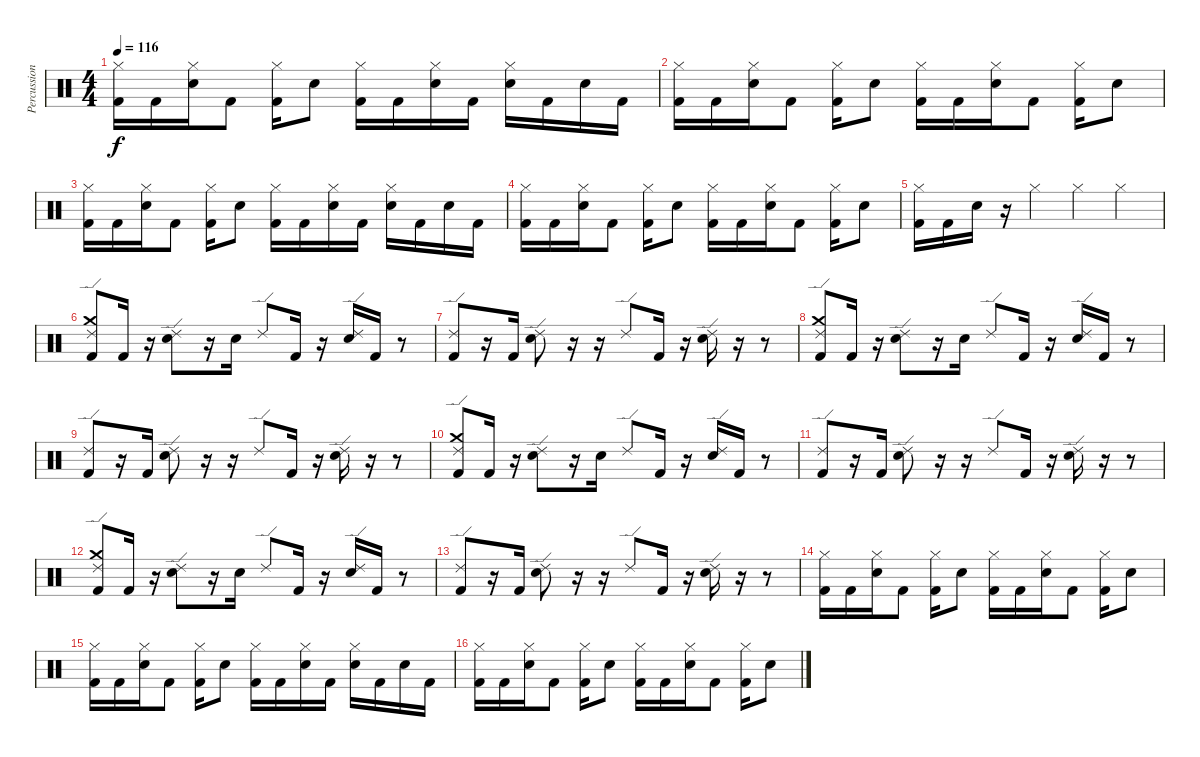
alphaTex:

\track ("Percussion" "Percussion") {instrument percussion}
\staff {score}
\articulation defaults
\ts (4 4)
\tempo 116
\clef neutral
\ks c
("Hi-Hat (closed)" "Kick (hit) 2").16{dy f} "Kick (hit) 2".16 ("Hi-Hat (closed)" "Electric Snare (hit)").16 "Kick (hit) 2".8 ("Hi-Hat (closed)" "Kick (hit) 2").16 "Electric Snare (hit)".8 ("Hi-Hat (closed)" "Kick (hit) 2").16 "Kick (hit) 2".16 ("Hi-Hat (closed)" "Electric Snare (hit)").16 "Kick (hit) 2".16 ("Hi-Hat (closed)" "Electric Snare (hit)").16 "Kick (hit) 2".16 "Electric Snare (hit)".16 "Kick (hit) 2".16 |
("Hi-Hat (closed)" "Kick (hit) 2").16 "Kick (hit) 2".16 ("Hi-Hat (closed)" "Electric Snare (hit)").16 "Kick (hit) 2".8 ("Hi-Hat (closed)" "Kick (hit) 2").16 "Electric Snare (hit)".8 ("Hi-Hat (closed)" "Kick (hit) 2").16 "Kick (hit) 2".16 ("Hi-Hat (closed)" "Electric Snare (hit)").16 "Kick (hit) 2".8 ("Hi-Hat (closed)" "Kick (hit) 2").16 "Electric Snare (hit)".8 |
("Hi-Hat (closed)" "Kick (hit) 2").16 "Kick (hit) 2".16 ("Hi-Hat (closed)" "Electric Snare (hit)").16 "Kick (hit) 2".8 ("Hi-Hat (closed)" "Kick (hit) 2").16 "Electric Snare (hit)".8 ("Hi-Hat (closed)" "Kick (hit) 2").16 "Kick (hit) 2".16 ("Hi-Hat (closed)" "Electric Snare (hit)").16 "Kick (hit) 2".16 ("Hi-Hat (closed)" "Electric Snare (hit)").16 "Kick (hit) 2".16 "Electric Snare (hit)".16 "Kick (hit) 2".16 |
("Hi-Hat (closed)" "Kick (hit) 2").16 "Kick (hit) 2".16 ("Hi-Hat (closed)" "Electric Snare (hit)").16 "Kick (hit) 2".8 ("Hi-Hat (closed)" "Kick (hit) 2").16 "Electric Snare (hit)".8 ("Hi-Hat (closed)" "Kick (hit) 2").16 "Kick (hit) 2".16 ("Hi-Hat (closed)" "Electric Snare (hit)").16 "Kick (hit) 2".8 ("Hi-Hat (closed)" "Kick (hit) 2").16 "Electric Snare (hit)".8 |
("Hi-Hat (closed)" "Kick (hit) 2").16 "Kick (hit) 2".16 "Electric Snare (hit)".16 r.16 "Hi-Hat (closed)".4 "Hi-Hat (closed)".4 "Hi-Hat (closed)".4 |
("Crash medium (hit)" "Ride (edge) 2" "Kick (hit) 2").8 "Kick (hit) 2".16 r.16 ("Ride (edge) 2" "Electric Snare (hit)").8 r.16 "Electric Snare (hit)".16 "Ride (edge) 2".8 "Kick (hit) 2".16 r.16 ("Ride (edge) 2" "Electric Snare (hit)").16 "Kick (hit) 2".16 r.8 |
("Ride (edge) 2" "Kick (hit) 2").8 r.16 "Kick (hit) 2".16 ("Ride (edge) 2" "Electric Snare (hit)").8 r.16 r.16 "Ride (edge) 2".8 "Kick (hit) 2".16 r.16 ("Ride (edge) 2" "Electric Snare (hit)").16 r.16 r.8 |
("Crash medium (hit)" "Ride (edge) 2" "Kick (hit) 2").8 "Kick (hit) 2".16 r.16 ("Ride (edge) 2" "Electric Snare (hit)").8 r.16 "Electric Snare (hit)".16 "Ride (edge) 2".8 "Kick (hit) 2".16 r.16 ("Ride (edge) 2" "Electric Snare (hit)").16 "Kick (hit) 2".16 r.8 |
("Ride (edge) 2" "Kick (hit) 2").8 r.16 "Kick (hit) 2".16 ("Ride (edge) 2" "Electric Snare (hit)").8 r.16 r.16 "Ride (edge) 2".8 "Kick (hit) 2".16 r.16 ("Ride (edge) 2" "Electric Snare (hit)").16 r.16 r.8 |
("Crash medium (hit)" "Ride (edge) 2" "Kick (hit) 2").8 "Kick (hit) 2".16 r.16 ("Ride (edge) 2" "Electric Snare (hit)").8 r.16 "Electric Snare (hit)".16 "Ride (edge) 2".8 "Kick (hit) 2".16 r.16 ("Ride (edge) 2" "Electric Snare (hit)").16 "Kick (hit) 2".16 r.8 |
("Ride (edge) 2" "Kick (hit) 2").8 r.16 "Kick (hit) 2".16 ("Ride (edge) 2" "Electric Snare (hit)").8 r.16 r.16 "Ride (edge) 2".8 "Kick (hit) 2".16 r.16 ("Ride (edge) 2" "Electric Snare (hit)").16 r.16 r.8 |
("Crash medium (hit)" "Ride (edge) 2" "Kick (hit) 2").8 "Kick (hit) 2".16 r.16 ("Ride (edge) 2" "Electric Snare (hit)").8 r.16 "Electric Snare (hit)".16 "Ride (edge) 2".8 "Kick (hit) 2".16 r.16 ("Ride (edge) 2" "Electric Snare (hit)").16 "Kick (hit) 2".16 r.8 |
("Ride (edge) 2" "Kick (hit) 2").8 r.16 "Kick (hit) 2".16 ("Ride (edge) 2" "Electric Snare (hit)").8 r.16 r.16 "Ride (edge) 2".8 "Kick (hit) 2".16 r.16 ("Ride (edge) 2" "Electric Snare (hit)").16 r.16 r.8 |
("Hi-Hat (closed)" "Kick (hit) 2").16 "Kick (hit) 2".16 ("Hi-Hat (closed)" "Electric Snare (hit)").16 "Kick (hit) 2".8 ("Hi-Hat (closed)" "Kick (hit) 2").16 "Electric Snare (hit)".8 ("Hi-Hat (closed)" "Kick (hit) 2").16 "Kick (hit) 2".16 ("Hi-Hat (closed)" "Electric Snare (hit)").16 "Kick (hit) 2".8 ("Hi-Hat (closed)" "Kick (hit) 2").16 "Electric Snare (hit)".8 |
("Hi-Hat (closed)" "Kick (hit) 2").16 "Kick (hit) 2".16 ("Hi-Hat (closed)" "Electric Snare (hit)").16 "Kick (hit) 2".8 ("Hi-Hat (closed)" "Kick (hit) 2").16 "Electric Snare (hit)".8 ("Hi-Hat (closed)" "Kick (hit) 2").16 "Kick (hit) 2".16 ("Hi-Hat (closed)" "Electric Snare (hit)").16 "Kick (hit) 2".16 ("Hi-Hat (closed)" "Electric Snare (hit)").16 "Kick (hit) 2".16 "Electric Snare (hit)".16 "Kick (hit) 2".16 |
("Hi-Hat (closed)" "Kick (hit) 2").16 "Kick (hit) 2".16 ("Hi-Hat (closed)" "Electric Snare (hit)").16 "Kick (hit) 2".8 ("Hi-Hat (closed)" "Kick (hit) 2").16 "Electric Snare (hit)".8 ("Hi-Hat (closed)" "Kick (hit) 2").16 "Kick (hit) 2".16 ("Hi-Hat (closed)" "Electric Snare (hit)").16 "Kick (hit) 2".8 ("Hi-Hat (closed)" "Kick (hit) 2").16 "Electric Snare (hit)".8
